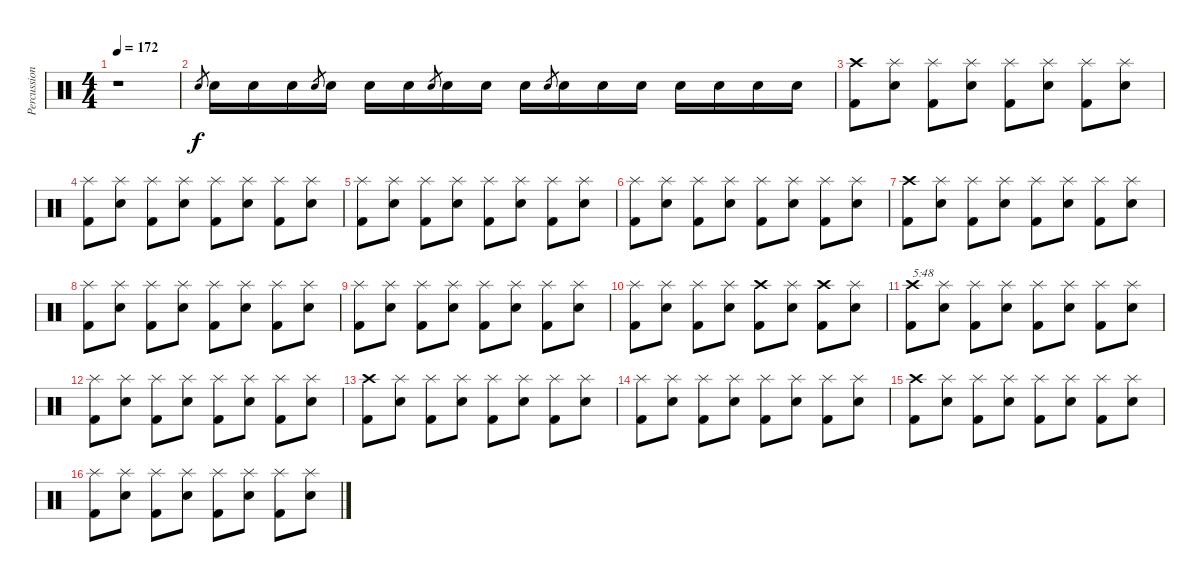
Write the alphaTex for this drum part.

\track ("Percussions" "Percussion") {instrument percussion}
\staff {score}
\articulation defaults
\ts (4 4)
\tempo 172
\clef neutral
\ks c
r.1{dy f} |
"Electric Snare (hit)".8{gr} "Electric Snare (hit)".16 "Electric Snare (hit)".16 "Electric Snare (hit)".16 "Electric Snare (hit)".8{gr} "Electric Snare (hit)".16 "Electric Snare (hit)".16 "Electric Snare (hit)".16 "Electric Snare (hit)".8{gr} "Electric Snare (hit)".16 "Electric Snare (hit)".16 "Electric Snare (hit)".16 "Electric Snare (hit)".8{gr} "Electric Snare (hit)".16 "Electric Snare (hit)".16 "Electric Snare (hit)".16 "Electric Snare (hit)".16 "Electric Snare (hit)".16 "Electric Snare (hit)".16 "Electric Snare (hit)".16 |
("Crash high (hit)" "Kick (hit) 2").8 ("Splash (hit)" "Electric Snare (hit)").8 ("Splash (hit)" "Kick (hit) 2").8 ("Splash (hit)" "Electric Snare (hit)").8 ("Splash (hit)" "Kick (hit) 2").8 ("Splash (hit)" "Electric Snare (hit)").8 ("Splash (hit)" "Kick (hit) 2").8 ("Splash (hit)" "Electric Snare (hit)").8 |
("Splash (hit)" "Kick (hit) 2").8 ("Splash (hit)" "Electric Snare (hit)").8 ("Splash (hit)" "Kick (hit) 2").8 ("Splash (hit)" "Electric Snare (hit)").8 ("Splash (hit)" "Kick (hit) 2").8 ("Splash (hit)" "Electric Snare (hit)").8 ("Splash (hit)" "Kick (hit) 2").8 ("Splash (hit)" "Electric Snare (hit)").8 |
("Splash (hit)" "Kick (hit) 2").8 ("Splash (hit)" "Electric Snare (hit)").8 ("Splash (hit)" "Kick (hit) 2").8 ("Splash (hit)" "Electric Snare (hit)").8 ("Splash (hit)" "Kick (hit) 2").8 ("Splash (hit)" "Electric Snare (hit)").8 ("Splash (hit)" "Kick (hit) 2").8 ("Splash (hit)" "Electric Snare (hit)").8 |
("Splash (hit)" "Kick (hit) 2").8 ("Splash (hit)" "Electric Snare (hit)").8 ("Splash (hit)" "Kick (hit) 2").8 ("Splash (hit)" "Electric Snare (hit)").8 ("Splash (hit)" "Kick (hit) 2").8 ("Splash (hit)" "Electric Snare (hit)").8 ("Splash (hit)" "Kick (hit) 2").8 ("Splash (hit)" "Electric Snare (hit)").8 |
("Crash high (hit)" "Kick (hit) 2").8 ("Splash (hit)" "Electric Snare (hit)").8 ("Splash (hit)" "Kick (hit) 2").8 ("Splash (hit)" "Electric Snare (hit)").8 ("Splash (hit)" "Kick (hit) 2").8 ("Splash (hit)" "Electric Snare (hit)").8 ("Splash (hit)" "Kick (hit) 2").8 ("Splash (hit)" "Electric Snare (hit)").8 |
("Splash (hit)" "Kick (hit) 2").8 ("Splash (hit)" "Electric Snare (hit)").8 ("Splash (hit)" "Kick (hit) 2").8 ("Splash (hit)" "Electric Snare (hit)").8 ("Splash (hit)" "Kick (hit) 2").8 ("Splash (hit)" "Electric Snare (hit)").8 ("Splash (hit)" "Kick (hit) 2").8 ("Splash (hit)" "Electric Snare (hit)").8 |
("Splash (hit)" "Kick (hit) 2").8 ("Splash (hit)" "Electric Snare (hit)").8 ("Splash (hit)" "Kick (hit) 2").8 ("Splash (hit)" "Electric Snare (hit)").8 ("Splash (hit)" "Kick (hit) 2").8 ("Splash (hit)" "Electric Snare (hit)").8 ("Splash (hit)" "Kick (hit) 2").8 ("Splash (hit)" "Electric Snare (hit)").8 |
("Splash (hit)" "Kick (hit) 2").8 ("Splash (hit)" "Electric Snare (hit)").8 ("Splash (hit)" "Kick (hit) 2").8 ("Splash (hit)" "Electric Snare (hit)").8 ("Crash high (hit)" "Kick (hit) 2").8 ("Splash (hit)" "Electric Snare (hit)").8 ("Crash high (hit)" "Kick (hit) 2").8 ("Splash (hit)" "Electric Snare (hit)").8 |
("Crash high (hit)" "Kick (hit) 2").8{txt "5:48"} ("Splash (hit)" "Electric Snare (hit)").8 ("Splash (hit)" "Kick (hit) 2").8 ("Splash (hit)" "Electric Snare (hit)").8 ("Splash (hit)" "Kick (hit) 2").8 ("Splash (hit)" "Electric Snare (hit)").8 ("Splash (hit)" "Kick (hit) 2").8 ("Splash (hit)" "Electric Snare (hit)").8 |
("Splash (hit)" "Kick (hit) 2").8 ("Splash (hit)" "Electric Snare (hit)").8 ("Splash (hit)" "Kick (hit) 2").8 ("Splash (hit)" "Electric Snare (hit)").8 ("Splash (hit)" "Kick (hit) 2").8 ("Splash (hit)" "Electric Snare (hit)").8 ("Splash (hit)" "Kick (hit) 2").8 ("Splash (hit)" "Electric Snare (hit)").8 |
("Crash high (hit)" "Kick (hit) 2").8 ("Splash (hit)" "Electric Snare (hit)").8 ("Splash (hit)" "Kick (hit) 2").8 ("Splash (hit)" "Electric Snare (hit)").8 ("Splash (hit)" "Kick (hit) 2").8 ("Splash (hit)" "Electric Snare (hit)").8 ("Splash (hit)" "Kick (hit) 2").8 ("Splash (hit)" "Electric Snare (hit)").8 |
("Splash (hit)" "Kick (hit) 2").8 ("Splash (hit)" "Electric Snare (hit)").8 ("Splash (hit)" "Kick (hit) 2").8 ("Splash (hit)" "Electric Snare (hit)").8 ("Splash (hit)" "Kick (hit) 2").8 ("Splash (hit)" "Electric Snare (hit)").8 ("Splash (hit)" "Kick (hit) 2").8 ("Splash (hit)" "Electric Snare (hit)").8 |
("Crash high (hit)" "Kick (hit) 2").8 ("Splash (hit)" "Electric Snare (hit)").8 ("Splash (hit)" "Kick (hit) 2").8 ("Splash (hit)" "Electric Snare (hit)").8 ("Splash (hit)" "Kick (hit) 2").8 ("Splash (hit)" "Electric Snare (hit)").8 ("Splash (hit)" "Kick (hit) 2").8 ("Splash (hit)" "Electric Snare (hit)").8 |
("Splash (hit)" "Kick (hit) 2").8 ("Splash (hit)" "Electric Snare (hit)").8 ("Splash (hit)" "Kick (hit) 2").8 ("Splash (hit)" "Electric Snare (hit)").8 ("Splash (hit)" "Kick (hit) 2").8 ("Splash (hit)" "Electric Snare (hit)").8 ("Splash (hit)" "Kick (hit) 2").8 ("Splash (hit)" "Electric Snare (hit)").8
